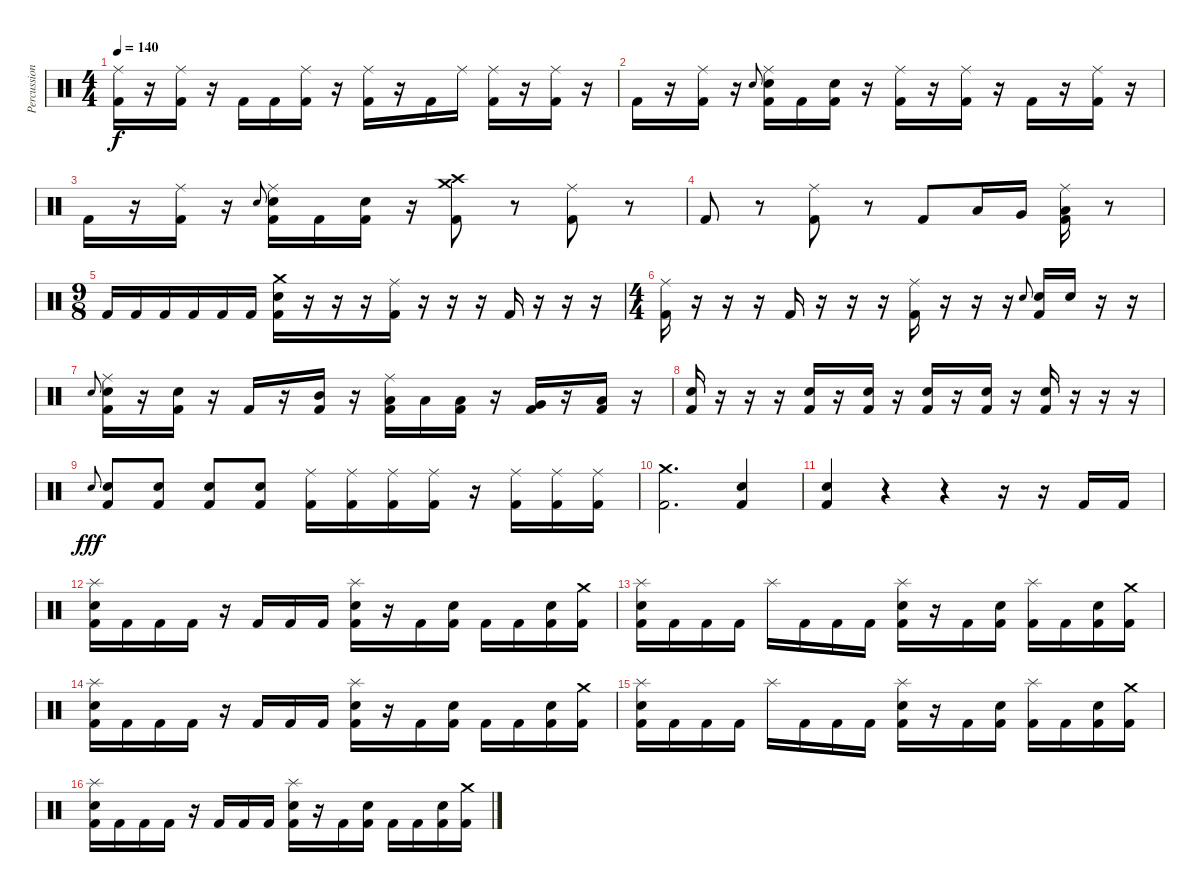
\track ("Percussion" "Percussion") {instrument percussion}
\staff {score}
\articulation defaults
\ts (4 4)
\tempo 140
\clef neutral
\ks c
("Ride (middle)" "Kick (hit) 2").16{dy f} r.16 ("Ride (middle)" "Kick (hit) 2").16 r.16 "Kick (hit) 2".16 "Kick (hit) 2".16 ("Ride (middle)" "Kick (hit) 2").16 r.16 ("Ride (middle)" "Kick (hit) 2").16 r.16 "Kick (hit) 2".16 "Ride (middle)".16 ("Ride (middle)" "Kick (hit) 2").16 r.16 ("Ride (middle)" "Kick (hit) 2").16 r.16 |
"Kick (hit) 2".16 r.16 ("Ride (middle)" "Kick (hit) 2").16 r.16 "Electric Snare (hit)".8{gr onbeat} ("Ride (middle)" "Electric Snare (hit)" "Kick (hit) 2").16 "Kick (hit) 2".16 ("Electric Snare (hit)" "Kick (hit) 2").16 r.16 ("Ride (middle)" "Kick (hit) 2").16 r.16 ("Ride (middle)" "Kick (hit) 2").16 r.16 "Kick (hit) 2".16 r.16 ("Ride (middle)" "Kick (hit) 2").16 r.16 |
"Kick (hit) 2".16 r.16 ("Ride (middle)" "Kick (hit) 2").16 r.16 "Electric Snare (hit)".8{gr onbeat} ("Ride (middle)" "Electric Snare (hit)" "Kick (hit) 2").16 "Kick (hit) 2".16 ("Electric Snare (hit)" "Kick (hit) 2").16 r.16 ("Crash high (hit)" "Crash medium (hit)" "Kick (hit) 2").8 r.8 ("Ride (middle)" "Kick (hit) 2").8 r.8 |
"Kick (hit) 2".8 r.8 ("Ride (middle)" "Kick (hit) 2").8 r.8 "Kick (hit) 2".8 "Low Tom (hit)".16 "Very Low Tom (hit)".16 ("Ride (middle)" "Low Floor Tom (hit)" "Kick (hit) 2").16 r.8 |
\ts (9 8)
"Kick (hit) 2".16 "Kick (hit) 2".16 "Kick (hit) 2".16 "Kick (hit) 2".16 "Kick (hit) 2".16 "Kick (hit) 2".16 ("Crash medium (hit)" "Electric Snare (hit)" "Kick (hit) 2").16 r.16 r.16 r.16 ("Ride (middle)" "Kick (hit) 2").16 r.16 r.16 r.16 "Kick (hit) 2".16 r.16 r.16 r.16 |
\ts (4 4)
("Ride (middle)" "Kick (hit) 2").16 r.16 r.16 r.16 "Kick (hit) 2".16 r.16 r.16 r.16 ("Ride (middle)" "Kick (hit) 2").16 r.16 r.16 r.16 "Electric Snare (hit)".8{gr onbeat} ("Electric Snare (hit)" "Kick (hit) 2").16 "Electric Snare (hit)".16 r.16 r.16 |
"Electric Snare (hit)".8{gr onbeat} ("Ride (middle)" "Electric Snare (hit)" "Kick (hit) 2").16 r.16 ("Electric Snare (hit)" "Kick (hit) 2").16 r.16 "Kick (hit) 2".16 r.16 ("Mid Tom (hit)" "Kick (hit) 2").16 r.16 ("Ride (middle)" "Low Tom (hit)" "Kick (hit) 2").16 "Low Tom (hit)".16 ("Low Tom (hit)" "Kick (hit) 2").16 r.16 ("Very Low Tom (hit)" "Kick (hit) 2").16 r.16 ("Low Floor Tom (hit)" "Kick (hit) 2").16 r.16 |
("Electric Snare (hit)" "Kick (hit) 2").16 r.16 r.16 r.16 ("Electric Snare (hit)" "Kick (hit) 2").16 r.16 ("Electric Snare (hit)" "Kick (hit) 2").16 r.16 ("Electric Snare (hit)" "Kick (hit) 2").16 r.16 ("Electric Snare (hit)" "Kick (hit) 2").16 r.16 ("Electric Snare (hit)" "Kick (hit) 2").16 r.16 r.16 r.16 |
"Electric Snare (hit)".8{gr onbeat dy fff} ("Electric Snare (hit)" "Kick (hit) 2").8 ("Electric Snare (hit)" "Kick (hit) 2").8 ("Electric Snare (hit)" "Kick (hit) 2").8 ("Electric Snare (hit)" "Kick (hit) 2").8 ("Ride (middle)" "Kick (hit) 2").16 ("Ride (middle)" "Kick (hit) 2").16 ("Ride (middle)" "Kick (hit) 2").16 ("Ride (middle)" "Kick (hit) 2").16 r.16 ("Ride (middle)" "Kick (hit) 2").16 ("Ride (middle)" "Kick (hit) 2").16 ("Ride (middle)" "Kick (hit) 2").16 |
("Crash medium (hit)" "Kick (hit) 2").2{d} ("Electric Snare (hit)" "Kick (hit) 2").4 |
("Electric Snare (hit)" "Kick (hit) 2").4 r.4 r.4 r.16 r.16 "Kick (hit) 2".16 "Kick (hit) 2".16 |
("Splash (hit)" "Electric Snare (hit)" "Kick (hit) 2").16 "Kick (hit) 2".16 "Kick (hit) 2".16 "Kick (hit) 2".16 r.16 "Kick (hit) 2".16 "Kick (hit) 2".16 "Kick (hit) 2".16 ("Splash (hit)" "Electric Snare (hit)" "Kick (hit) 2").16 r.16 "Kick (hit) 2".16 ("Electric Snare (hit)" "Kick (hit) 2").16 "Kick (hit) 2".16 "Kick (hit) 2".16 ("Electric Snare (hit)" "Kick (hit) 2").16 ("Crash medium (hit)" "Kick (hit) 2").16 |
("Splash (hit)" "Electric Snare (hit)" "Kick (hit) 2").16 "Kick (hit) 2".16 "Kick (hit) 2".16 "Kick (hit) 2".16 "Splash (hit)".16 "Kick (hit) 2".16 "Kick (hit) 2".16 "Kick (hit) 2".16 ("Splash (hit)" "Electric Snare (hit)" "Kick (hit) 2").16 r.16 "Kick (hit) 2".16 ("Electric Snare (hit)" "Kick (hit) 2").16 ("Splash (hit)" "Kick (hit) 2").16 "Kick (hit) 2".16 ("Electric Snare (hit)" "Kick (hit) 2").16 ("Crash medium (hit)" "Kick (hit) 2").16 |
("Splash (hit)" "Electric Snare (hit)" "Kick (hit) 2").16 "Kick (hit) 2".16 "Kick (hit) 2".16 "Kick (hit) 2".16 r.16 "Kick (hit) 2".16 "Kick (hit) 2".16 "Kick (hit) 2".16 ("Splash (hit)" "Electric Snare (hit)" "Kick (hit) 2").16 r.16 "Kick (hit) 2".16 ("Electric Snare (hit)" "Kick (hit) 2").16 "Kick (hit) 2".16 "Kick (hit) 2".16 ("Electric Snare (hit)" "Kick (hit) 2").16 ("Crash medium (hit)" "Kick (hit) 2").16 |
("Splash (hit)" "Electric Snare (hit)" "Kick (hit) 2").16 "Kick (hit) 2".16 "Kick (hit) 2".16 "Kick (hit) 2".16 "Splash (hit)".16 "Kick (hit) 2".16 "Kick (hit) 2".16 "Kick (hit) 2".16 ("Splash (hit)" "Electric Snare (hit)" "Kick (hit) 2").16 r.16 "Kick (hit) 2".16 ("Electric Snare (hit)" "Kick (hit) 2").16 ("Splash (hit)" "Kick (hit) 2").16 "Kick (hit) 2".16 ("Electric Snare (hit)" "Kick (hit) 2").16 ("Crash medium (hit)" "Kick (hit) 2").16 |
("Splash (hit)" "Electric Snare (hit)" "Kick (hit) 2").16 "Kick (hit) 2".16 "Kick (hit) 2".16 "Kick (hit) 2".16 r.16 "Kick (hit) 2".16 "Kick (hit) 2".16 "Kick (hit) 2".16 ("Splash (hit)" "Electric Snare (hit)" "Kick (hit) 2").16 r.16 "Kick (hit) 2".16 ("Electric Snare (hit)" "Kick (hit) 2").16 "Kick (hit) 2".16 "Kick (hit) 2".16 ("Electric Snare (hit)" "Kick (hit) 2").16 ("Crash medium (hit)" "Kick (hit) 2").16
